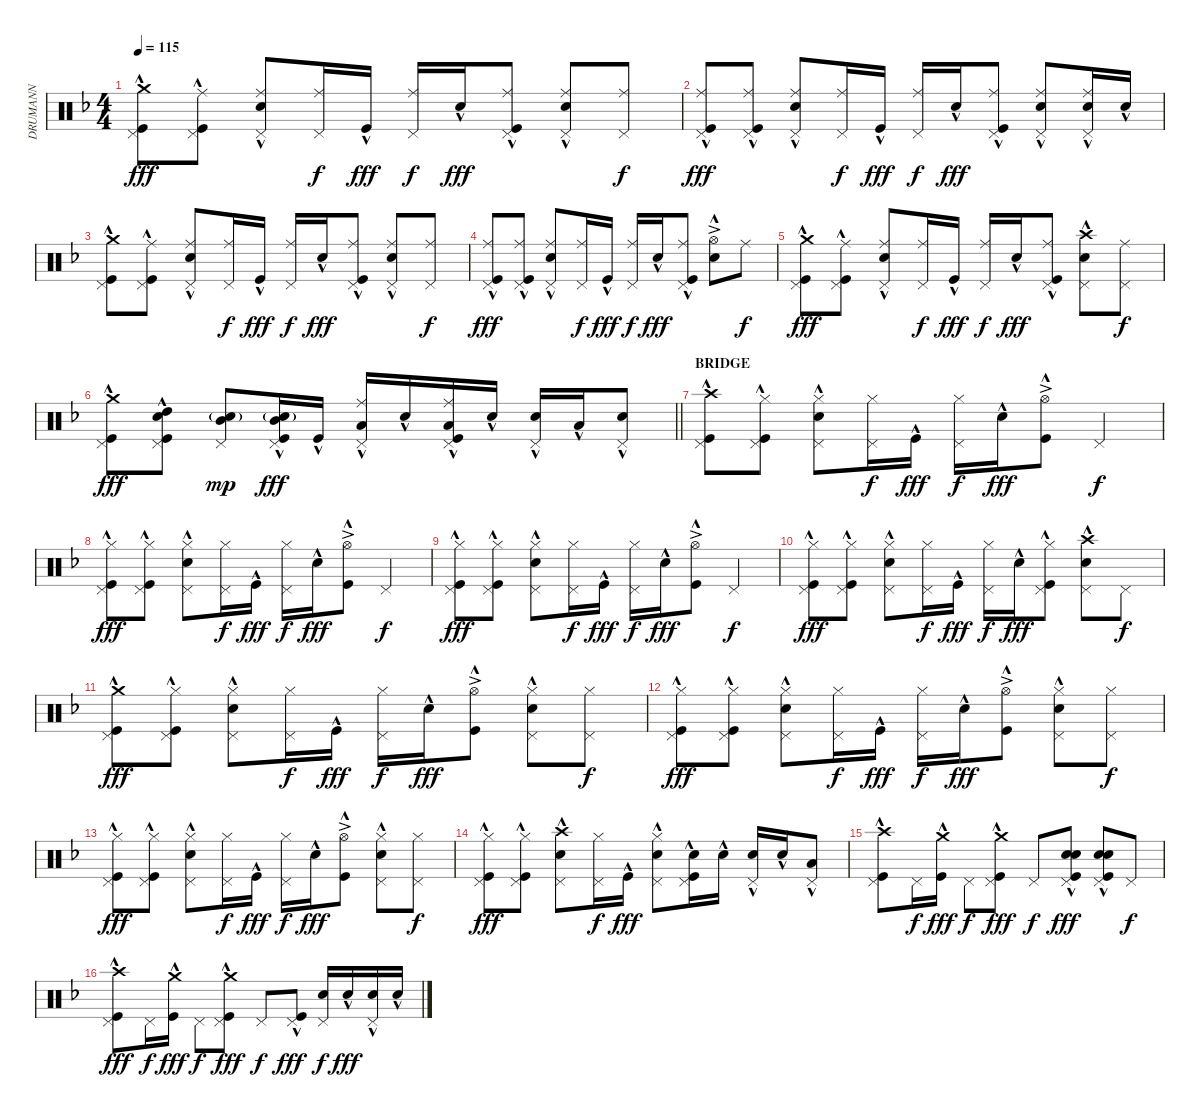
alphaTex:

\track ("DRUMANN" "DRUMANN") {instrument percussion}
\staff {score}
\articulation defaults
\ts (4 4)
\tempo 115
\clef neutral
\ks f
("Crash medium (hit)"{hac} "Pedal Hi-Hat (hit)" "Kick (hit)"{hac}).8{dy fff} ("Ride (middle)" "Pedal Hi-Hat (hit)" "Kick (hit)"{hac}).8 ("Ride (middle)" "Snare (hit) 2"{hac} "Pedal Hi-Hat (hit)").8 ("Ride (middle)" "Pedal Hi-Hat (hit)").16{dy f} "Kick (hit)"{hac}.16{dy fff} ("Ride (middle)" "Pedal Hi-Hat (hit)").16{dy f} "Snare (hit) 2"{hac}.16{dy fff} ("Ride (middle)" "Pedal Hi-Hat (hit)" "Kick (hit)"{hac}).8 ("Ride (middle)" "Snare (hit) 2"{hac} "Pedal Hi-Hat (hit)").8 ("Ride (middle)" "Pedal Hi-Hat (hit)").8{dy f} |
("Ride (middle)" "Pedal Hi-Hat (hit)" "Kick (hit)"{hac}).8{dy fff} ("Ride (middle)" "Pedal Hi-Hat (hit)" "Kick (hit)"{hac}).8 ("Ride (middle)" "Snare (hit) 2"{hac} "Pedal Hi-Hat (hit)").8 ("Ride (middle)" "Pedal Hi-Hat (hit)").16{dy f} "Kick (hit)"{hac}.16{dy fff} ("Ride (middle)" "Pedal Hi-Hat (hit)").16{dy f} "Snare (hit) 2"{hac}.16{dy fff} ("Ride (middle)" "Pedal Hi-Hat (hit)" "Kick (hit)"{hac}).8 ("Ride (middle)" "Snare (hit) 2"{hac} "Pedal Hi-Hat (hit)").8 ("Ride (middle)" "Snare (hit) 2"{hac} "Pedal Hi-Hat (hit)").16 "Snare (hit) 2"{hac}.16 |
("Crash medium (hit)"{hac} "Pedal Hi-Hat (hit)" "Kick (hit)"{hac}).8 ("Ride (middle)" "Pedal Hi-Hat (hit)" "Kick (hit)"{hac}).8 ("Ride (middle)" "Snare (hit) 2"{hac} "Pedal Hi-Hat (hit)").8 ("Ride (middle)" "Pedal Hi-Hat (hit)").16{dy f} "Kick (hit)"{hac}.16{dy fff} ("Ride (middle)" "Pedal Hi-Hat (hit)").16{dy f} "Snare (hit) 2"{hac}.16{dy fff} ("Ride (middle)" "Pedal Hi-Hat (hit)" "Kick (hit)"{hac}).8 ("Ride (middle)" "Snare (hit) 2"{hac} "Pedal Hi-Hat (hit)").8 ("Ride (middle)" "Pedal Hi-Hat (hit)").8{dy f} |
("Ride (middle)" "Pedal Hi-Hat (hit)" "Kick (hit)"{hac}).8{dy fff} ("Ride (middle)" "Pedal Hi-Hat (hit)" "Kick (hit)"{hac}).8 ("Ride (middle)" "Snare (hit) 2"{hac} "Pedal Hi-Hat (hit)").8 ("Ride (middle)" "Pedal Hi-Hat (hit)").16{dy f} "Kick (hit)"{hac}.16{dy fff} ("Ride (middle)" "Pedal Hi-Hat (hit)").16{dy f} "Snare (hit) 2"{hac}.16{dy fff} ("Ride (middle)" "Pedal Hi-Hat (hit)" "Kick (hit)"{hac}).8 ("Hi-Hat (open)"{ac} "Snare (hit) 2"{hac}).8 "Ride (middle)".8{dy f} |
("Crash medium (hit)"{hac} "Pedal Hi-Hat (hit)" "Kick (hit)"{hac}).8{dy fff} ("Ride (middle)" "Pedal Hi-Hat (hit)" "Kick (hit)"{hac}).8 ("Ride (middle)" "Snare (hit) 2"{hac} "Pedal Hi-Hat (hit)").8 ("Ride (middle)" "Pedal Hi-Hat (hit)").16{dy f} "Kick (hit)"{hac}.16{dy fff} ("Ride (middle)" "Pedal Hi-Hat (hit)").16{dy f} "Snare (hit) 2"{hac}.16{dy fff} ("Ride (middle)" "Pedal Hi-Hat (hit)" "Kick (hit)"{hac}).8 ("Crash high (hit)"{hac} "Snare (hit) 2"{hac} "Pedal Hi-Hat (hit)").8 ("Ride (middle)" "Pedal Hi-Hat (hit)").8{dy f} |
\barLineRight lightlight
("Crash medium (hit)"{hac} "Pedal Hi-Hat (hit)" "Kick (hit)"{hac}).8{dy fff} ("High Tom (hit)" "Snare (hit) 2"{hac} "Pedal Hi-Hat (hit)" "Kick (hit)"{hac}).8 ("Mid Tom (hit)" "Snare (hit) 2"{g} "Pedal Hi-Hat (hit)").8{dy mp} ("Mid Tom (hit)" "Snare (hit) 2"{g} "Pedal Hi-Hat (hit)" "Kick (hit)"{hac}).16{dy fff} "Kick (hit)"{hac}.16 ("Ride (middle)"{hac} "Low Tom (hit)"{hac} "Pedal Hi-Hat (hit)").16 "Snare (hit) 2"{hac}.16 ("Ride (middle)"{hac} "Low Tom (hit)"{hac} "Pedal Hi-Hat (hit)" "Kick (hit)"{hac}).16 "Snare (hit) 2"{hac}.16 ("Snare (hit) 2"{hac} "Pedal Hi-Hat (hit)").16 "Low Tom (hit)"{hac}.16 ("Snare (hit) 2"{hac} "Pedal Hi-Hat (hit)").8 |
\section ("" "BRIDGE")
("Crash high (hit)"{hac} "Pedal Hi-Hat (hit)" "Kick (hit)"{hac}).8 ("Hi-Hat (closed)" "Pedal Hi-Hat (hit)" "Kick (hit)"{hac}).8 ("Hi-Hat (closed)" "Snare (hit) 2"{hac} "Pedal Hi-Hat (hit)").8 ("Hi-Hat (closed)" "Pedal Hi-Hat (hit)").16{dy f} "Kick (hit)"{hac}.16{dy fff} ("Hi-Hat (closed)" "Pedal Hi-Hat (hit)").16{dy f} "Snare (hit) 2"{hac}.16{dy fff} ("Hi-Hat (open)"{ac} "Kick (hit)"{hac}).8 "Pedal Hi-Hat (hit)".4{dy f} |
("Hi-Hat (closed)" "Pedal Hi-Hat (hit)" "Kick (hit)"{hac}).8{dy fff} ("Hi-Hat (closed)" "Pedal Hi-Hat (hit)" "Kick (hit)"{hac}).8 ("Hi-Hat (closed)" "Snare (hit) 2"{hac} "Pedal Hi-Hat (hit)").8 ("Hi-Hat (closed)" "Pedal Hi-Hat (hit)").16{dy f} "Kick (hit)"{hac}.16{dy fff} ("Hi-Hat (closed)" "Pedal Hi-Hat (hit)").16{dy f} "Snare (hit) 2"{hac}.16{dy fff} ("Hi-Hat (open)"{ac} "Kick (hit)"{hac}).8 "Pedal Hi-Hat (hit)".4{dy f} |
("Hi-Hat (closed)" "Pedal Hi-Hat (hit)" "Kick (hit)"{hac}).8{dy fff} ("Hi-Hat (closed)" "Pedal Hi-Hat (hit)" "Kick (hit)"{hac}).8 ("Hi-Hat (closed)" "Snare (hit) 2"{hac} "Pedal Hi-Hat (hit)").8 ("Hi-Hat (closed)" "Pedal Hi-Hat (hit)").16{dy f} "Kick (hit)"{hac}.16{dy fff} ("Hi-Hat (closed)" "Pedal Hi-Hat (hit)").16{dy f} "Snare (hit) 2"{hac}.16{dy fff} ("Hi-Hat (open)"{ac} "Kick (hit)"{hac}).8 "Pedal Hi-Hat (hit)".4{dy f} |
("Hi-Hat (closed)" "Pedal Hi-Hat (hit)" "Kick (hit)"{hac}).8{dy fff} ("Hi-Hat (closed)" "Pedal Hi-Hat (hit)" "Kick (hit)"{hac}).8 ("Hi-Hat (closed)" "Snare (hit) 2"{hac} "Pedal Hi-Hat (hit)").8 ("Hi-Hat (closed)" "Pedal Hi-Hat (hit)").16{dy f} "Kick (hit)"{hac}.16{dy fff} ("Hi-Hat (closed)" "Pedal Hi-Hat (hit)").16{dy f} "Snare (hit) 2"{hac}.16{dy fff} ("Hi-Hat (closed)" "Pedal Hi-Hat (hit)" "Kick (hit)"{hac}).8 ("Crash high (hit)"{hac} "Snare (hit) 2"{hac} "Pedal Hi-Hat (hit)").8 "Pedal Hi-Hat (hit)".8{dy f} |
("Crash medium (hit)"{hac} "Pedal Hi-Hat (hit)" "Kick (hit)"{hac}).8{dy fff} ("Hi-Hat (closed)" "Pedal Hi-Hat (hit)" "Kick (hit)"{hac}).8 ("Hi-Hat (closed)" "Snare (hit) 2"{hac} "Pedal Hi-Hat (hit)").8 ("Hi-Hat (closed)" "Pedal Hi-Hat (hit)").16{dy f} "Kick (hit)"{hac}.16{dy fff} ("Hi-Hat (closed)" "Pedal Hi-Hat (hit)").16{dy f} "Snare (hit) 2"{hac}.16{dy fff} ("Hi-Hat (open)"{ac} "Kick (hit)"{hac}).8 ("Hi-Hat (closed)" "Snare (hit) 2"{hac} "Pedal Hi-Hat (hit)").8 ("Hi-Hat (closed)" "Pedal Hi-Hat (hit)").8{dy f} |
("Hi-Hat (closed)" "Pedal Hi-Hat (hit)" "Kick (hit)"{hac}).8{dy fff} ("Hi-Hat (closed)" "Pedal Hi-Hat (hit)" "Kick (hit)"{hac}).8 ("Hi-Hat (closed)" "Snare (hit) 2"{hac} "Pedal Hi-Hat (hit)").8 ("Hi-Hat (closed)" "Pedal Hi-Hat (hit)").16{dy f} "Kick (hit)"{hac}.16{dy fff} ("Hi-Hat (closed)" "Pedal Hi-Hat (hit)").16{dy f} "Snare (hit) 2"{hac}.16{dy fff} ("Hi-Hat (open)"{ac} "Kick (hit)"{hac}).8 ("Hi-Hat (closed)" "Snare (hit) 2"{hac} "Pedal Hi-Hat (hit)").8 ("Hi-Hat (closed)" "Pedal Hi-Hat (hit)").8{dy f} |
("Hi-Hat (closed)" "Pedal Hi-Hat (hit)" "Kick (hit)"{hac}).8{dy fff} ("Hi-Hat (closed)" "Pedal Hi-Hat (hit)" "Kick (hit)"{hac}).8 ("Hi-Hat (closed)" "Snare (hit) 2"{hac} "Pedal Hi-Hat (hit)").8 ("Hi-Hat (closed)" "Pedal Hi-Hat (hit)").16{dy f} "Kick (hit)"{hac}.16{dy fff} ("Hi-Hat (closed)" "Pedal Hi-Hat (hit)").16{dy f} "Snare (hit) 2"{hac}.16{dy fff} ("Hi-Hat (open)"{ac} "Kick (hit)"{hac}).8 ("Hi-Hat (closed)" "Snare (hit) 2"{hac} "Pedal Hi-Hat (hit)").8 ("Hi-Hat (closed)" "Pedal Hi-Hat (hit)").8{dy f} |
("Hi-Hat (closed)" "Pedal Hi-Hat (hit)" "Kick (hit)"{hac}).8{dy fff} ("Hi-Hat (closed)" "Pedal Hi-Hat (hit)" "Kick (hit)"{hac}).8 ("Crash high (hit)"{hac} "Snare (hit) 2"{hac} "Pedal Hi-Hat (hit)").8 ("Hi-Hat (closed)" "Pedal Hi-Hat (hit)").16{dy f} "Kick (hit)"{hac}.16{dy fff} ("Hi-Hat (closed)" "Snare (hit) 2"{hac} "Pedal Hi-Hat (hit)").8 ("Snare (hit) 2"{hac} "Pedal Hi-Hat (hit)" "Kick (hit)"{hac}).16 "Snare (hit) 2"{hac}.16 ("Snare (hit) 2"{hac} "Pedal Hi-Hat (hit)").16 "Snare (hit) 2"{hac}.16 ("Low Tom (hit)"{hac} "Pedal Hi-Hat (hit)").8 |
("Crash high (hit)"{hac} "Pedal Hi-Hat (hit)" "Kick (hit)"{hac}).8 "Pedal Hi-Hat (hit)".16{dy f} ("Crash medium (hit)"{hac} "Kick (hit)"{hac}).16{dy fff} "Pedal Hi-Hat (hit)".8{dy f} ("Crash medium (hit)"{hac} "Pedal Hi-Hat (hit)" "Kick (hit)"{hac}).8{dy fff} "Pedal Hi-Hat (hit)".8{dy f} ("Snare (hit) 2" "Snare (hit) 2"{hac} "Pedal Hi-Hat (hit)" "Kick (hit)"{hac}).8{dy fff} ("Snare (hit) 2" "Snare (hit) 2"{hac} "Pedal Hi-Hat (hit)" "Kick (hit)"{hac}).8 "Pedal Hi-Hat (hit)".8{dy f} |
("Crash high (hit)"{hac} "Pedal Hi-Hat (hit)" "Kick (hit)"{hac}).8{dy fff} "Pedal Hi-Hat (hit)".16{dy f} ("Crash medium (hit)"{hac} "Kick (hit)"{hac}).16{dy fff} "Pedal Hi-Hat (hit)".8{dy f} ("Crash medium (hit)"{hac} "Pedal Hi-Hat (hit)" "Kick (hit)"{hac}).8{dy fff} "Pedal Hi-Hat (hit)".8{dy f} ("Pedal Hi-Hat (hit)" "Kick (hit)"{hac}).8{dy fff} ("Snare (hit) 2" "Pedal Hi-Hat (hit)").16{dy f} "Snare (hit) 2"{hac}.16{dy fff} ("Snare (hit) 2"{hac} "Pedal Hi-Hat (hit)").16 "Snare (hit) 2"{hac}.16
